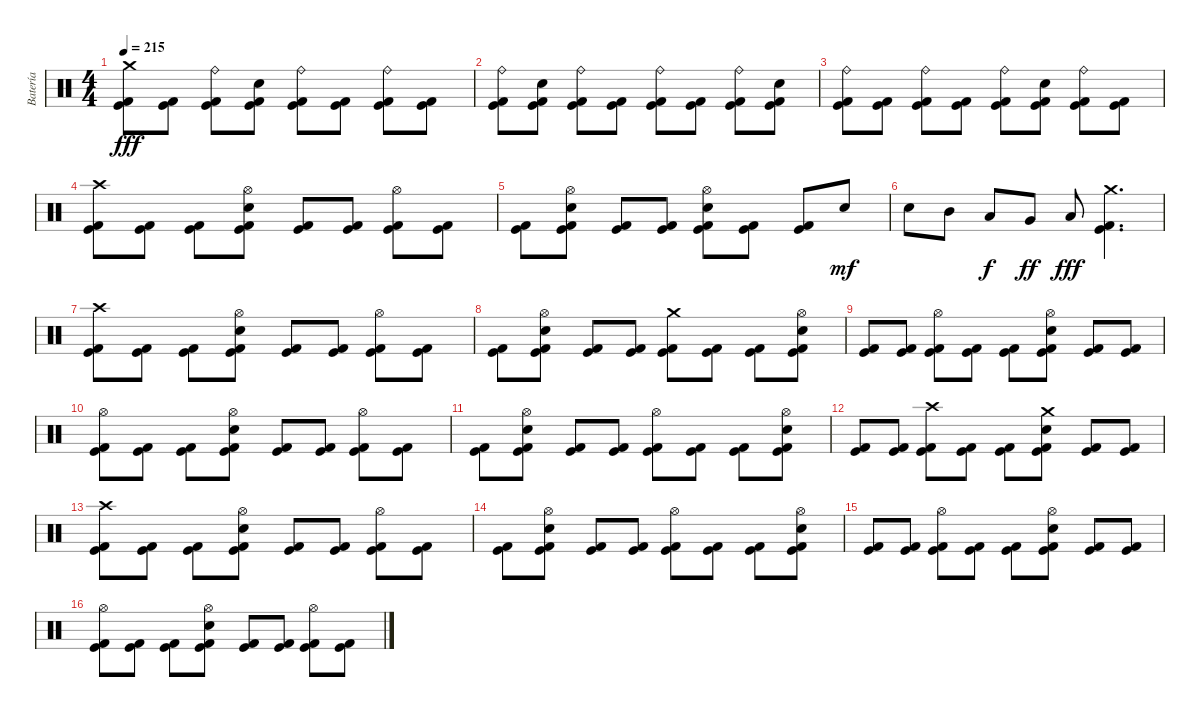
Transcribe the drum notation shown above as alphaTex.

\track ("Batería" "Batería") {instrument percussion}
\staff {score}
\articulation defaults
\ts (4 4)
\tempo 215
\clef neutral
\ks c
("Crash medium (hit)" "Kick (hit) 2" "Kick (hit)").8{dy fff} ("Kick (hit) 2" "Kick (hit)").8 ("Ride (bell)" "Kick (hit) 2" "Kick (hit)").8 ("Electric Snare (hit)" "Kick (hit) 2" "Kick (hit)").8 ("Ride (bell)" "Kick (hit) 2" "Kick (hit)").8 ("Kick (hit) 2" "Kick (hit)").8 ("Ride (bell)" "Kick (hit) 2" "Kick (hit)").8 ("Kick (hit) 2" "Kick (hit)").8 |
("Ride (bell)" "Kick (hit) 2" "Kick (hit)").8 ("Electric Snare (hit)" "Kick (hit) 2" "Kick (hit)").8 ("Ride (bell)" "Kick (hit) 2" "Kick (hit)").8 ("Kick (hit) 2" "Kick (hit)").8 ("Ride (bell)" "Kick (hit) 2" "Kick (hit)").8 ("Kick (hit) 2" "Kick (hit)").8 ("Ride (bell)" "Kick (hit) 2" "Kick (hit)").8 ("Electric Snare (hit)" "Kick (hit) 2" "Kick (hit)").8 |
("Ride (bell)" "Kick (hit) 2" "Kick (hit)").8 ("Kick (hit) 2" "Kick (hit)").8 ("Ride (bell)" "Kick (hit) 2" "Kick (hit)").8 ("Kick (hit) 2" "Kick (hit)").8 ("Ride (bell)" "Kick (hit) 2" "Kick (hit)").8 ("Electric Snare (hit)" "Kick (hit) 2" "Kick (hit)").8 ("Ride (bell)" "Kick (hit) 2" "Kick (hit)").8 ("Kick (hit) 2" "Kick (hit)").8 |
("Crash high (hit)" "Kick (hit) 2" "Kick (hit)").8 ("Kick (hit) 2" "Kick (hit)").8 ("Kick (hit) 2" "Kick (hit)").8 ("Hi-Hat (open)" "Electric Snare (hit)" "Kick (hit) 2" "Kick (hit)").8 ("Kick (hit) 2" "Kick (hit)").8 ("Kick (hit) 2" "Kick (hit)").8 ("Hi-Hat (open)" "Kick (hit) 2" "Kick (hit)").8 ("Kick (hit) 2" "Kick (hit)").8 |
("Kick (hit) 2" "Kick (hit)").8 ("Hi-Hat (open)" "Electric Snare (hit)" "Kick (hit) 2" "Kick (hit)").8 ("Kick (hit) 2" "Kick (hit)").8 ("Kick (hit) 2" "Kick (hit)").8 ("Hi-Hat (open)" "Electric Snare (hit)" "Kick (hit) 2" "Kick (hit)").8 ("Kick (hit) 2" "Kick (hit)").8 ("Kick (hit) 2" "Kick (hit)").8 "Electric Snare (hit)".8{dy mf} |
"Electric Snare (hit)".8 "Mid Tom (hit)".8 "Low Tom (hit)".8{dy f} "Very Low Tom (hit)".8{dy ff} "Low Floor Tom (hit)".8{dy fff} ("Crash medium (hit)" "Kick (hit) 2" "Kick (hit)").4{d} |
("Crash high (hit)" "Kick (hit) 2" "Kick (hit)").8 ("Kick (hit) 2" "Kick (hit)").8 ("Kick (hit) 2" "Kick (hit)").8 ("Hi-Hat (open)" "Electric Snare (hit)" "Kick (hit) 2" "Kick (hit)").8 ("Kick (hit) 2" "Kick (hit)").8 ("Kick (hit) 2" "Kick (hit)").8 ("Hi-Hat (open)" "Kick (hit) 2" "Kick (hit)").8 ("Kick (hit) 2" "Kick (hit)").8 |
("Kick (hit) 2" "Kick (hit)").8 ("Hi-Hat (open)" "Electric Snare (hit)" "Kick (hit) 2" "Kick (hit)").8 ("Kick (hit) 2" "Kick (hit)").8 ("Kick (hit) 2" "Kick (hit)").8 ("Crash medium (hit)" "Kick (hit) 2" "Kick (hit)").8 ("Kick (hit) 2" "Kick (hit)").8 ("Kick (hit) 2" "Kick (hit)").8 ("Hi-Hat (open)" "Electric Snare (hit)" "Kick (hit) 2" "Kick (hit)").8 |
("Kick (hit) 2" "Kick (hit)").8 ("Kick (hit) 2" "Kick (hit)").8 ("Hi-Hat (open)" "Kick (hit) 2" "Kick (hit)").8 ("Kick (hit) 2" "Kick (hit)").8 ("Kick (hit) 2" "Kick (hit)").8 ("Hi-Hat (open)" "Electric Snare (hit)" "Kick (hit) 2" "Kick (hit)").8 ("Kick (hit) 2" "Kick (hit)").8 ("Kick (hit) 2" "Kick (hit)").8 |
("Hi-Hat (open)" "Kick (hit) 2" "Kick (hit)").8 ("Kick (hit) 2" "Kick (hit)").8 ("Kick (hit) 2" "Kick (hit)").8 ("Hi-Hat (open)" "Electric Snare (hit)" "Kick (hit) 2" "Kick (hit)").8 ("Kick (hit) 2" "Kick (hit)").8 ("Kick (hit) 2" "Kick (hit)").8 ("Hi-Hat (open)" "Kick (hit) 2" "Kick (hit)").8 ("Kick (hit) 2" "Kick (hit)").8 |
("Kick (hit) 2" "Kick (hit)").8 ("Hi-Hat (open)" "Electric Snare (hit)" "Kick (hit) 2" "Kick (hit)").8 ("Kick (hit) 2" "Kick (hit)").8 ("Kick (hit) 2" "Kick (hit)").8 ("Hi-Hat (open)" "Kick (hit) 2" "Kick (hit)").8 ("Kick (hit) 2" "Kick (hit)").8 ("Kick (hit) 2" "Kick (hit)").8 ("Hi-Hat (open)" "Electric Snare (hit)" "Kick (hit) 2" "Kick (hit)").8 |
("Kick (hit) 2" "Kick (hit)").8 ("Kick (hit) 2" "Kick (hit)").8 ("Crash high (hit)" "Kick (hit) 2" "Kick (hit)").8 ("Kick (hit) 2" "Kick (hit)").8 ("Kick (hit) 2" "Kick (hit)").8 ("Crash medium (hit)" "Electric Snare (hit)" "Kick (hit) 2" "Kick (hit)").8 ("Kick (hit) 2" "Kick (hit)").8 ("Kick (hit) 2" "Kick (hit)").8 |
("Crash high (hit)" "Kick (hit) 2" "Kick (hit)").8 ("Kick (hit) 2" "Kick (hit)").8 ("Kick (hit) 2" "Kick (hit)").8 ("Hi-Hat (open)" "Electric Snare (hit)" "Kick (hit) 2" "Kick (hit)").8 ("Kick (hit) 2" "Kick (hit)").8 ("Kick (hit) 2" "Kick (hit)").8 ("Hi-Hat (open)" "Kick (hit) 2" "Kick (hit)").8 ("Kick (hit) 2" "Kick (hit)").8 |
("Kick (hit) 2" "Kick (hit)").8 ("Hi-Hat (open)" "Electric Snare (hit)" "Kick (hit) 2" "Kick (hit)").8 ("Kick (hit) 2" "Kick (hit)").8 ("Kick (hit) 2" "Kick (hit)").8 ("Hi-Hat (open)" "Kick (hit) 2" "Kick (hit)").8 ("Kick (hit) 2" "Kick (hit)").8 ("Kick (hit) 2" "Kick (hit)").8 ("Hi-Hat (open)" "Electric Snare (hit)" "Kick (hit) 2" "Kick (hit)").8 |
("Kick (hit) 2" "Kick (hit)").8 ("Kick (hit) 2" "Kick (hit)").8 ("Hi-Hat (open)" "Kick (hit) 2" "Kick (hit)").8 ("Kick (hit) 2" "Kick (hit)").8 ("Kick (hit) 2" "Kick (hit)").8 ("Hi-Hat (open)" "Electric Snare (hit)" "Kick (hit) 2" "Kick (hit)").8 ("Kick (hit) 2" "Kick (hit)").8 ("Kick (hit) 2" "Kick (hit)").8 |
("Hi-Hat (open)" "Kick (hit) 2" "Kick (hit)").8 ("Kick (hit) 2" "Kick (hit)").8 ("Kick (hit) 2" "Kick (hit)").8 ("Hi-Hat (open)" "Electric Snare (hit)" "Kick (hit) 2" "Kick (hit)").8 ("Kick (hit) 2" "Kick (hit)").8 ("Kick (hit) 2" "Kick (hit)").8 ("Hi-Hat (open)" "Kick (hit) 2" "Kick (hit)").8 ("Kick (hit) 2" "Kick (hit)").8
